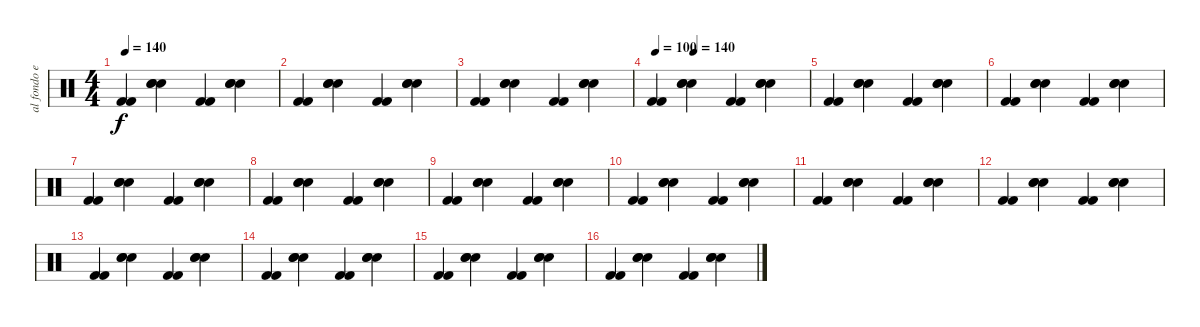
\track ("al fondo en la bateria Mr Pedro Andreu" "al fondo e") {instrument percussion}
\staff {score}
\articulation defaults
\ts (4 4)
\tempo 140
\clef neutral
\ks c
("Kick (hit) 2" "Kick (hit) 2").4{dy f} ("Snare (hit) 2" "Snare (hit) 2" "Snare (hit) 2").4 ("Kick (hit) 2" "Kick (hit) 2").4 ("Snare (hit) 2" "Snare (hit) 2" "Snare (hit) 2").4 |
("Kick (hit) 2" "Kick (hit) 2").4 ("Snare (hit) 2" "Snare (hit) 2" "Snare (hit) 2").4 ("Kick (hit) 2" "Kick (hit) 2").4 ("Snare (hit) 2" "Snare (hit) 2" "Snare (hit) 2").4 |
("Kick (hit) 2" "Kick (hit) 2").4 ("Snare (hit) 2" "Snare (hit) 2" "Snare (hit) 2").4 ("Kick (hit) 2" "Kick (hit) 2").4 ("Snare (hit) 2" "Snare (hit) 2" "Snare (hit) 2").4 |
\tempo 100
\tempo (140 0.25)
("Kick (hit) 2" "Kick (hit) 2").4 ("Snare (hit) 2" "Snare (hit) 2" "Snare (hit) 2").4 ("Kick (hit) 2" "Kick (hit) 2").4 ("Snare (hit) 2" "Snare (hit) 2" "Snare (hit) 2").4 |
("Kick (hit) 2" "Kick (hit) 2").4 ("Snare (hit) 2" "Snare (hit) 2" "Snare (hit) 2").4 ("Kick (hit) 2" "Kick (hit) 2").4 ("Snare (hit) 2" "Snare (hit) 2" "Snare (hit) 2").4 |
("Kick (hit) 2" "Kick (hit) 2").4 ("Snare (hit) 2" "Snare (hit) 2" "Snare (hit) 2").4 ("Kick (hit) 2" "Kick (hit) 2").4 ("Snare (hit) 2" "Snare (hit) 2" "Snare (hit) 2").4 |
("Kick (hit) 2" "Kick (hit) 2").4 ("Snare (hit) 2" "Snare (hit) 2" "Snare (hit) 2").4 ("Kick (hit) 2" "Kick (hit) 2").4 ("Snare (hit) 2" "Snare (hit) 2" "Snare (hit) 2").4 |
("Kick (hit) 2" "Kick (hit) 2").4 ("Snare (hit) 2" "Snare (hit) 2" "Snare (hit) 2").4 ("Kick (hit) 2" "Kick (hit) 2").4 ("Snare (hit) 2" "Snare (hit) 2" "Snare (hit) 2").4 |
("Kick (hit) 2" "Kick (hit) 2").4 ("Snare (hit) 2" "Snare (hit) 2" "Snare (hit) 2").4 ("Kick (hit) 2" "Kick (hit) 2").4 ("Snare (hit) 2" "Snare (hit) 2" "Snare (hit) 2").4 |
("Kick (hit) 2" "Kick (hit) 2").4 ("Snare (hit) 2" "Snare (hit) 2" "Snare (hit) 2").4 ("Kick (hit) 2" "Kick (hit) 2").4 ("Snare (hit) 2" "Snare (hit) 2" "Snare (hit) 2").4 |
("Kick (hit) 2" "Kick (hit) 2").4 ("Snare (hit) 2" "Snare (hit) 2" "Snare (hit) 2").4 ("Kick (hit) 2" "Kick (hit) 2").4 ("Snare (hit) 2" "Snare (hit) 2" "Snare (hit) 2").4 |
("Kick (hit) 2" "Kick (hit) 2").4 ("Snare (hit) 2" "Snare (hit) 2" "Snare (hit) 2").4 ("Kick (hit) 2" "Kick (hit) 2").4 ("Snare (hit) 2" "Snare (hit) 2" "Snare (hit) 2").4 |
("Kick (hit) 2" "Kick (hit) 2").4 ("Snare (hit) 2" "Snare (hit) 2" "Snare (hit) 2").4 ("Kick (hit) 2" "Kick (hit) 2").4 ("Snare (hit) 2" "Snare (hit) 2" "Snare (hit) 2").4 |
("Kick (hit) 2" "Kick (hit) 2").4 ("Snare (hit) 2" "Snare (hit) 2" "Snare (hit) 2").4 ("Kick (hit) 2" "Kick (hit) 2").4 ("Snare (hit) 2" "Snare (hit) 2" "Snare (hit) 2").4 |
("Kick (hit) 2" "Kick (hit) 2").4 ("Snare (hit) 2" "Snare (hit) 2" "Snare (hit) 2").4 ("Kick (hit) 2" "Kick (hit) 2").4 ("Snare (hit) 2" "Snare (hit) 2" "Snare (hit) 2").4 |
("Kick (hit) 2" "Kick (hit) 2").4 ("Snare (hit) 2" "Snare (hit) 2" "Snare (hit) 2").4 ("Kick (hit) 2" "Kick (hit) 2").4 ("Snare (hit) 2" "Snare (hit) 2" "Snare (hit) 2").4
